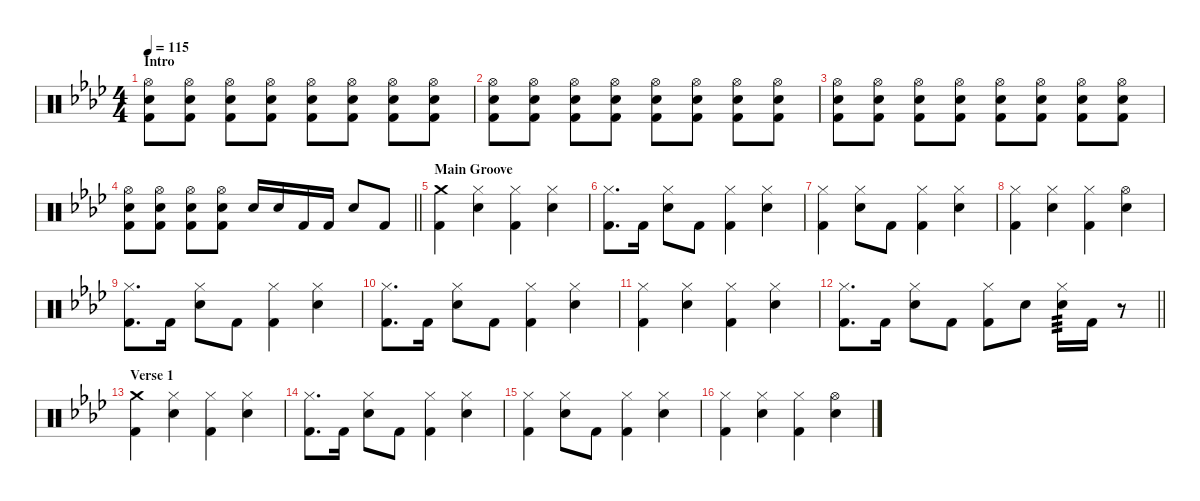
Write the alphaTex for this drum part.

\defaultSystemsLayout 4
\hideDynamics
\bracketExtendMode nobrackets
\singleTrackTrackNamePolicy hidden
\multiTrackTrackNamePolicy hidden
\firstSystemTrackNameMode fullname
\firstSystemTrackNameOrientation horizontal
\otherSystemsTrackNameOrientation horizontal
\track ("Drums" "drm.") {instrument percussion}
\staff {score}
\articulation defaults
\ts (4 4)
\section ("" "Intro")
\tempo 115
\clef neutral
\ks ab
("Hi-Hat (open)"{acc forcenatural} "Snare (hit) 2"{acc forcenatural} "Kick (hit) 2"{acc forcenatural}).8{dy mp beam Down} ("Hi-Hat (open)"{acc forcenatural} "Snare (hit) 2"{acc forcenatural} "Kick (hit) 2"{acc forcenatural}).8{beam Down} ("Hi-Hat (open)"{acc forcenatural} "Snare (hit) 2"{acc forcenatural} "Kick (hit) 2"{acc forcenatural}).8{beam Down} ("Hi-Hat (open)"{acc forcenatural} "Snare (hit) 2"{acc forcenatural} "Kick (hit) 2"{acc forcenatural}).8{beam Down} ("Hi-Hat (open)"{acc forcenatural} "Snare (hit) 2"{acc forcenatural} "Kick (hit) 2"{acc forcenatural}).8{beam Down} ("Hi-Hat (open)"{acc forcenatural} "Snare (hit) 2"{acc forcenatural} "Kick (hit) 2"{acc forcenatural}).8{beam Down} ("Hi-Hat (open)"{acc forcenatural} "Snare (hit) 2"{acc forcenatural} "Kick (hit) 2"{acc forcenatural}).8{beam Down} ("Hi-Hat (open)"{acc forcenatural} "Snare (hit) 2"{acc forcenatural} "Kick (hit) 2"{acc forcenatural}).8{beam Down} |
("Hi-Hat (open)"{acc forcenatural} "Snare (hit) 2"{acc forcenatural} "Kick (hit) 2"{acc forcenatural}).8{beam Down} ("Hi-Hat (open)"{acc forcenatural} "Snare (hit) 2"{acc forcenatural} "Kick (hit) 2"{acc forcenatural}).8{beam Down} ("Hi-Hat (open)"{acc forcenatural} "Snare (hit) 2"{acc forcenatural} "Kick (hit) 2"{acc forcenatural}).8{beam Down} ("Hi-Hat (open)"{acc forcenatural} "Snare (hit) 2"{acc forcenatural} "Kick (hit) 2"{acc forcenatural}).8{beam Down} ("Hi-Hat (open)"{acc forcenatural} "Snare (hit) 2"{acc forcenatural} "Kick (hit) 2"{acc forcenatural}).8{beam Down} ("Hi-Hat (open)"{acc forcenatural} "Snare (hit) 2"{acc forcenatural} "Kick (hit) 2"{acc forcenatural}).8{beam Down} ("Hi-Hat (open)"{acc forcenatural} "Snare (hit) 2"{acc forcenatural} "Kick (hit) 2"{acc forcenatural}).8{beam Down} ("Hi-Hat (open)"{acc forcenatural} "Snare (hit) 2"{acc forcenatural} "Kick (hit) 2"{acc forcenatural}).8{beam Down} |
("Hi-Hat (open)"{acc forcenatural} "Snare (hit) 2"{acc forcenatural} "Kick (hit) 2"{acc forcenatural}).8{dy mf beam Down} ("Hi-Hat (open)"{acc forcenatural} "Snare (hit) 2"{acc forcenatural} "Kick (hit) 2"{acc forcenatural}).8{beam Down} ("Hi-Hat (open)"{acc forcenatural} "Snare (hit) 2"{acc forcenatural} "Kick (hit) 2"{acc forcenatural}).8{beam Down} ("Hi-Hat (open)"{acc forcenatural} "Snare (hit) 2"{acc forcenatural} "Kick (hit) 2"{acc forcenatural}).8{beam Down} ("Hi-Hat (open)"{acc forcenatural} "Snare (hit) 2"{acc forcenatural} "Kick (hit) 2"{acc forcenatural}).8{beam Down} ("Hi-Hat (open)"{acc forcenatural} "Snare (hit) 2"{acc forcenatural} "Kick (hit) 2"{acc forcenatural}).8{beam Down} ("Hi-Hat (open)"{acc forcenatural} "Snare (hit) 2"{acc forcenatural} "Kick (hit) 2"{acc forcenatural}).8{beam Down} ("Hi-Hat (open)"{acc forcenatural} "Snare (hit) 2"{acc forcenatural} "Kick (hit) 2"{acc forcenatural}).8{beam Down} |
\barLineRight lightlight
("Hi-Hat (open)"{acc forcenatural} "Snare (hit) 2"{acc forcenatural} "Kick (hit) 2"{acc forcenatural}).8{dy f beam Down} ("Hi-Hat (open)"{acc forcenatural} "Snare (hit) 2"{acc forcenatural} "Kick (hit) 2"{acc forcenatural}).8{beam Down} ("Hi-Hat (open)"{acc forcenatural} "Snare (hit) 2"{acc forcenatural} "Kick (hit) 2"{acc forcenatural}).8{beam Down} ("Hi-Hat (open)"{acc forcenatural} "Snare (hit) 2"{acc forcenatural} "Kick (hit) 2"{acc forcenatural}).8{beam Down} "Snare (hit) 2"{acc forcenatural}.16{dy fff beam Up} "Snare (hit) 2"{acc forcenatural}.16{beam Up} "Kick (hit) 2"{acc forcenatural}.16{dy ff beam Up} "Kick (hit) 2"{acc forcenatural}.16{beam Up} "Snare (hit) 2"{acc forcenatural}.8{dy fff beam Up} "Kick (hit) 2"{acc forcenatural}.8{beam Up} |
\section ("" "Main Groove")
("Crash medium (hit)"{acc forcenatural} "Kick (hit) 2"{acc forcenatural}).4{dy f beam Down} ("Hi-Hat (closed)"{acc forcenatural} "Snare (hit) 2"{acc forcenatural}).4{beam Down} ("Hi-Hat (closed)"{acc forcenatural} "Kick (hit) 2"{acc forcenatural}).4{beam Down} ("Hi-Hat (closed)"{acc forcenatural} "Snare (hit) 2"{acc forcenatural}).4{beam Down} |
("Hi-Hat (closed)"{acc forcenatural} "Kick (hit) 2"{acc forcenatural}).8{d beam Down} "Kick (hit) 2"{acc forcenatural}.16{beam Down} ("Hi-Hat (closed)"{acc forcenatural} "Snare (hit) 2"{acc forcenatural}).8{beam Down} "Kick (hit) 2"{acc forcenatural}.8{beam Down} ("Hi-Hat (closed)"{acc forcenatural} "Kick (hit) 2"{acc forcenatural}).4{beam Down} ("Hi-Hat (closed)"{acc forcenatural} "Snare (hit) 2"{acc forcenatural}).4{beam Down} |
("Hi-Hat (closed)"{acc forcenatural} "Kick (hit) 2"{acc forcenatural}).4{beam Down} ("Hi-Hat (closed)"{acc forcenatural} "Snare (hit) 2"{acc forcenatural}).8{beam Down} "Kick (hit) 2"{acc forcenatural}.8{beam Down} ("Hi-Hat (closed)"{acc forcenatural} "Kick (hit) 2"{acc forcenatural}).4{beam Down} ("Hi-Hat (closed)"{acc forcenatural} "Snare (hit) 2"{acc forcenatural}).4{beam Down} |
("Hi-Hat (closed)"{acc forcenatural} "Kick (hit) 2"{acc forcenatural}).4{beam Down} ("Hi-Hat (closed)"{acc forcenatural} "Snare (hit) 2"{acc forcenatural}).4{beam Down} ("Hi-Hat (closed)"{acc forcenatural} "Kick (hit) 2"{acc forcenatural}).4{beam Down} ("Hi-Hat (open)"{acc forcenatural} "Snare (hit) 2"{acc forcenatural}).4{beam Down} |
("Hi-Hat (closed)"{acc forcenatural} "Kick (hit) 2"{acc forcenatural}).8{d beam Down} "Kick (hit) 2"{acc forcenatural}.16{beam Down} ("Hi-Hat (closed)"{acc forcenatural} "Snare (hit) 2"{acc forcenatural}).8{beam Down} "Kick (hit) 2"{acc forcenatural}.8{beam Down} ("Hi-Hat (closed)"{acc forcenatural} "Kick (hit) 2"{acc forcenatural}).4{beam Down} ("Hi-Hat (closed)"{acc forcenatural} "Snare (hit) 2"{acc forcenatural}).4{beam Down} |
("Hi-Hat (closed)"{acc forcenatural} "Kick (hit) 2"{acc forcenatural}).8{d beam Down} "Kick (hit) 2"{acc forcenatural}.16{beam Down} ("Hi-Hat (closed)"{acc forcenatural} "Snare (hit) 2"{acc forcenatural}).8{beam Down} "Kick (hit) 2"{acc forcenatural}.8{beam Down} ("Hi-Hat (closed)"{acc forcenatural} "Kick (hit) 2"{acc forcenatural}).4{beam Down} ("Hi-Hat (closed)"{acc forcenatural} "Snare (hit) 2"{acc forcenatural}).4{beam Down} |
("Hi-Hat (closed)"{acc forcenatural} "Kick (hit) 2"{acc forcenatural}).4{beam Down} ("Hi-Hat (closed)"{acc forcenatural} "Snare (hit) 2"{acc forcenatural}).4{beam Down} ("Hi-Hat (closed)"{acc forcenatural} "Kick (hit) 2"{acc forcenatural}).4{beam Down} ("Hi-Hat (closed)"{acc forcenatural} "Snare (hit) 2"{acc forcenatural}).4{beam Down} |
\barLineRight lightlight
("Hi-Hat (closed)"{acc forcenatural} "Kick (hit) 2"{acc forcenatural}).8{d beam Down} "Kick (hit) 2"{acc forcenatural}.16{beam Down} ("Hi-Hat (closed)"{acc forcenatural} "Snare (hit) 2"{acc forcenatural}).8{beam Down} "Kick (hit) 2"{acc forcenatural}.8{beam Down} ("Hi-Hat (closed)"{acc forcenatural} "Kick (hit) 2"{acc forcenatural}).8{beam Down} "Snare (hit) 2"{acc forcenatural}.8{beam Down} ("Hi-Hat (closed)"{acc forcenatural} "Snare (hit) 2"{acc forcenatural}).16{tp 3 beam Down} "Kick (hit) 2"{acc forcenatural}.16{beam Down} r.8{beam Down} |
\section ("" "Verse 1")
("Crash medium (hit)"{acc forcenatural} "Kick (hit) 2"{acc forcenatural}).4{beam Down} ("Hi-Hat (closed)"{acc forcenatural} "Snare (hit) 2"{acc forcenatural}).4{beam Down} ("Hi-Hat (closed)"{acc forcenatural} "Kick (hit) 2"{acc forcenatural}).4{beam Down} ("Hi-Hat (closed)"{acc forcenatural} "Snare (hit) 2"{acc forcenatural}).4{beam Down} |
("Hi-Hat (closed)"{acc forcenatural} "Kick (hit) 2"{acc forcenatural}).8{d beam Down} "Kick (hit) 2"{acc forcenatural}.16{beam Down} ("Hi-Hat (closed)"{acc forcenatural} "Snare (hit) 2"{acc forcenatural}).8{beam Down} "Kick (hit) 2"{acc forcenatural}.8{beam Down} ("Hi-Hat (closed)"{acc forcenatural} "Kick (hit) 2"{acc forcenatural}).4{beam Down} ("Hi-Hat (closed)"{acc forcenatural} "Snare (hit) 2"{acc forcenatural}).4{beam Down} |
("Hi-Hat (closed)"{acc forcenatural} "Kick (hit) 2"{acc forcenatural}).4{beam Down} ("Hi-Hat (closed)"{acc forcenatural} "Snare (hit) 2"{acc forcenatural}).8{beam Down} "Kick (hit) 2"{acc forcenatural}.8{beam Down} ("Hi-Hat (closed)"{acc forcenatural} "Kick (hit) 2"{acc forcenatural}).4{beam Down} ("Hi-Hat (closed)"{acc forcenatural} "Snare (hit) 2"{acc forcenatural}).4{beam Down} |
("Hi-Hat (closed)"{acc forcenatural} "Kick (hit) 2"{acc forcenatural}).4{beam Down} ("Hi-Hat (closed)"{acc forcenatural} "Snare (hit) 2"{acc forcenatural}).4{beam Down} ("Hi-Hat (closed)"{acc forcenatural} "Kick (hit) 2"{acc forcenatural}).4{beam Down} ("Hi-Hat (open)"{acc forcenatural} "Snare (hit) 2"{acc forcenatural}).4{beam Down}
